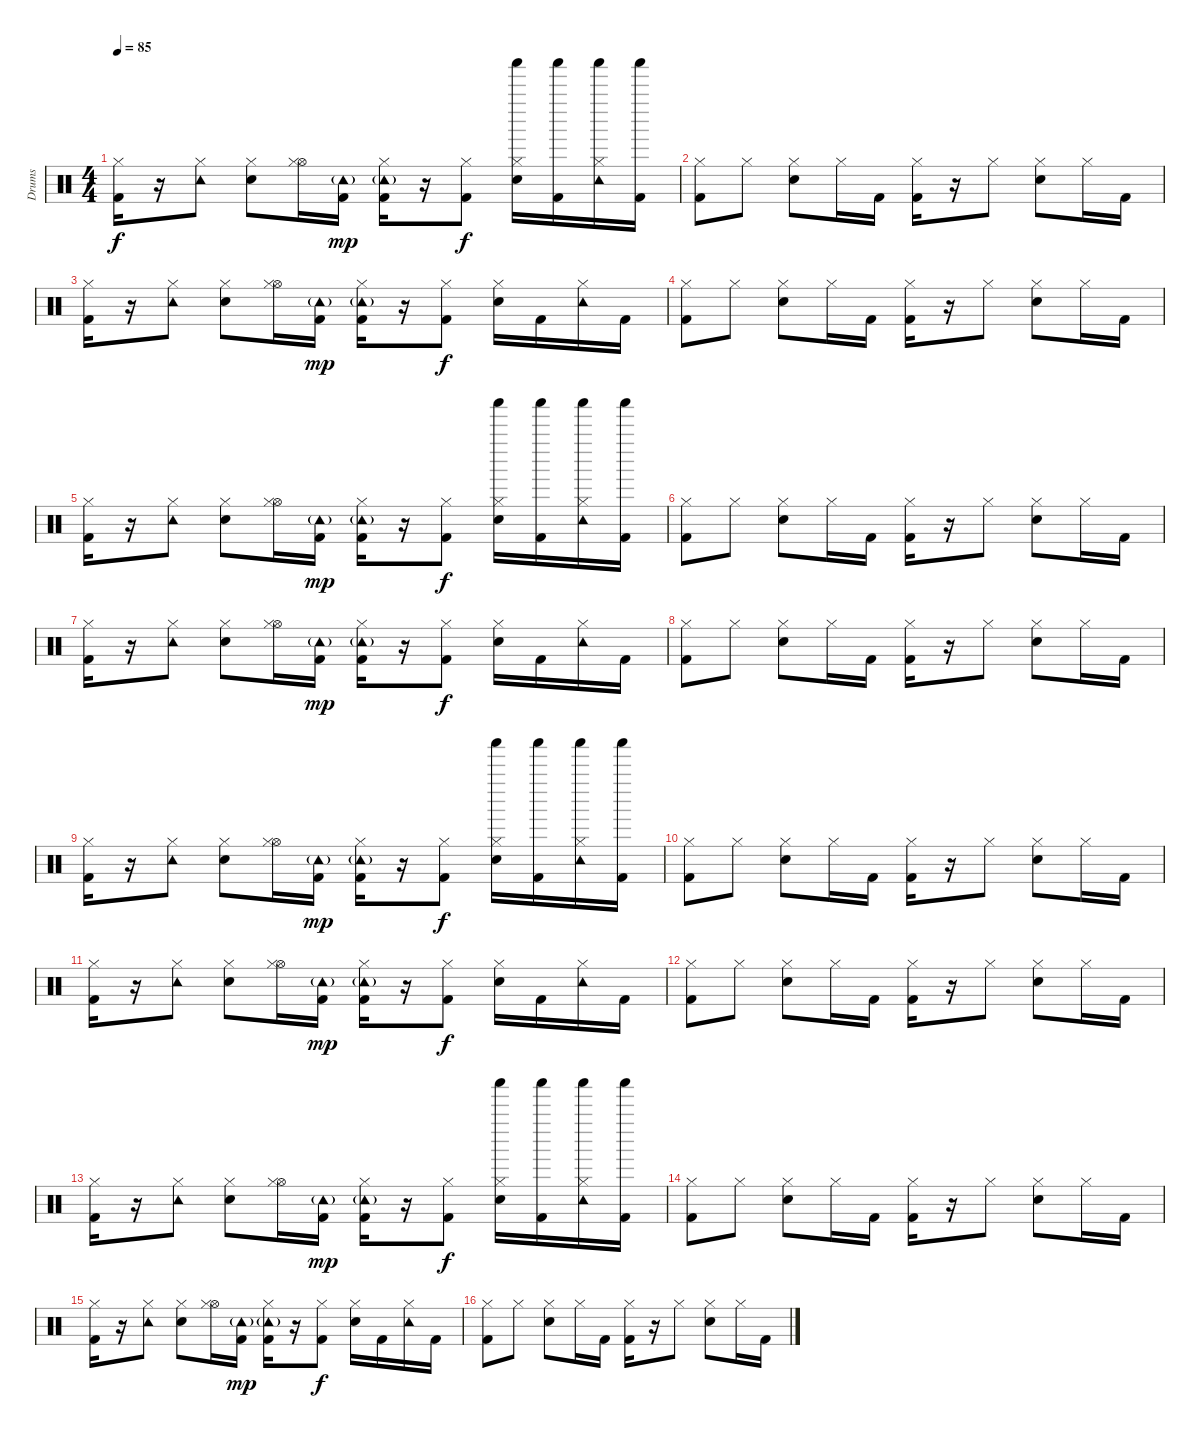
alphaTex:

\track ("Drums" "Drums") {instrument percussion}
\staff {score}
\articulation defaults
\ts (4 4)
\tempo 85
\clef neutral
\ks c
("Hi-Hat (closed)" "Kick (hit) 2").16{dy f} r.16 ("Tambourine (hit)" "Hi-Hat (closed)").8 ("Hi-Hat (closed)" "Snare (hit) 2").8 ("Hi-Hat (open)" "Hi-Hat (closed)").16 ("Tambourine (hit)"{g} "Kick (hit) 2").16{dy mp} ("Tambourine (hit)"{g} "Hi-Hat (closed)" "Kick (hit) 2").16 r.16 ("Hi-Hat (closed)" "Kick (hit) 2").8{dy f} ("Shaker (hit)" "Hi-Hat (closed)" "Snare (hit) 2").16 ("Shaker (hit)" "Kick (hit) 2").16 ("Tambourine (hit)" "Hi-Hat (closed)" "Shaker (hit)").16 ("Shaker (hit)" "Kick (hit) 2").16 |
("Hi-Hat (closed)" "Kick (hit) 2").8 "Hi-Hat (closed)".8 ("Hi-Hat (closed)" "Snare (hit) 2").8 "Hi-Hat (closed)".16 "Kick (hit) 2".16 ("Hi-Hat (closed)" "Kick (hit) 2").16 r.16 "Hi-Hat (closed)".8 ("Hi-Hat (closed)" "Snare (hit) 2").8 "Hi-Hat (closed)".16 "Kick (hit) 2".16 |
("Hi-Hat (closed)" "Kick (hit) 2").16 r.16 ("Tambourine (hit)" "Hi-Hat (closed)").8 ("Hi-Hat (closed)" "Snare (hit) 2").8 ("Hi-Hat (open)" "Hi-Hat (closed)").16 ("Tambourine (hit)"{g} "Kick (hit) 2").16{dy mp} ("Tambourine (hit)"{g} "Hi-Hat (closed)" "Kick (hit) 2").16 r.16 ("Hi-Hat (closed)" "Kick (hit) 2").8{dy f} ("Hi-Hat (closed)" "Snare (hit) 2").16 "Kick (hit) 2".16 ("Tambourine (hit)" "Hi-Hat (closed)").16 "Kick (hit) 2".16 |
("Hi-Hat (closed)" "Kick (hit) 2").8 "Hi-Hat (closed)".8 ("Hi-Hat (closed)" "Snare (hit) 2").8 "Hi-Hat (closed)".16 "Kick (hit) 2".16 ("Hi-Hat (closed)" "Kick (hit) 2").16 r.16 "Hi-Hat (closed)".8 ("Hi-Hat (closed)" "Snare (hit) 2").8 "Hi-Hat (closed)".16 "Kick (hit) 2".16 |
("Hi-Hat (closed)" "Kick (hit) 2").16 r.16 ("Tambourine (hit)" "Hi-Hat (closed)").8 ("Hi-Hat (closed)" "Snare (hit) 2").8 ("Hi-Hat (open)" "Hi-Hat (closed)").16 ("Tambourine (hit)"{g} "Kick (hit) 2").16{dy mp} ("Tambourine (hit)"{g} "Hi-Hat (closed)" "Kick (hit) 2").16 r.16 ("Hi-Hat (closed)" "Kick (hit) 2").8{dy f} ("Shaker (hit)" "Hi-Hat (closed)" "Snare (hit) 2").16 ("Shaker (hit)" "Kick (hit) 2").16 ("Tambourine (hit)" "Hi-Hat (closed)" "Shaker (hit)").16 ("Shaker (hit)" "Kick (hit) 2").16 |
("Hi-Hat (closed)" "Kick (hit) 2").8 "Hi-Hat (closed)".8 ("Hi-Hat (closed)" "Snare (hit) 2").8 "Hi-Hat (closed)".16 "Kick (hit) 2".16 ("Hi-Hat (closed)" "Kick (hit) 2").16 r.16 "Hi-Hat (closed)".8 ("Hi-Hat (closed)" "Snare (hit) 2").8 "Hi-Hat (closed)".16 "Kick (hit) 2".16 |
("Hi-Hat (closed)" "Kick (hit) 2").16 r.16 ("Tambourine (hit)" "Hi-Hat (closed)").8 ("Hi-Hat (closed)" "Snare (hit) 2").8 ("Hi-Hat (open)" "Hi-Hat (closed)").16 ("Tambourine (hit)"{g} "Kick (hit) 2").16{dy mp} ("Tambourine (hit)"{g} "Hi-Hat (closed)" "Kick (hit) 2").16 r.16 ("Hi-Hat (closed)" "Kick (hit) 2").8{dy f} ("Hi-Hat (closed)" "Snare (hit) 2").16 "Kick (hit) 2".16 ("Tambourine (hit)" "Hi-Hat (closed)").16 "Kick (hit) 2".16 |
("Hi-Hat (closed)" "Kick (hit) 2").8 "Hi-Hat (closed)".8 ("Hi-Hat (closed)" "Snare (hit) 2").8 "Hi-Hat (closed)".16 "Kick (hit) 2".16 ("Hi-Hat (closed)" "Kick (hit) 2").16 r.16 "Hi-Hat (closed)".8 ("Hi-Hat (closed)" "Snare (hit) 2").8 "Hi-Hat (closed)".16 "Kick (hit) 2".16 |
("Hi-Hat (closed)" "Kick (hit) 2").16 r.16 ("Tambourine (hit)" "Hi-Hat (closed)").8 ("Hi-Hat (closed)" "Snare (hit) 2").8 ("Hi-Hat (open)" "Hi-Hat (closed)").16 ("Tambourine (hit)"{g} "Kick (hit) 2").16{dy mp} ("Tambourine (hit)"{g} "Hi-Hat (closed)" "Kick (hit) 2").16 r.16 ("Hi-Hat (closed)" "Kick (hit) 2").8{dy f} ("Shaker (hit)" "Hi-Hat (closed)" "Snare (hit) 2").16 ("Shaker (hit)" "Kick (hit) 2").16 ("Tambourine (hit)" "Hi-Hat (closed)" "Shaker (hit)").16 ("Shaker (hit)" "Kick (hit) 2").16 |
("Hi-Hat (closed)" "Kick (hit) 2").8 "Hi-Hat (closed)".8 ("Hi-Hat (closed)" "Snare (hit) 2").8 "Hi-Hat (closed)".16 "Kick (hit) 2".16 ("Hi-Hat (closed)" "Kick (hit) 2").16 r.16 "Hi-Hat (closed)".8 ("Hi-Hat (closed)" "Snare (hit) 2").8 "Hi-Hat (closed)".16 "Kick (hit) 2".16 |
("Hi-Hat (closed)" "Kick (hit) 2").16 r.16 ("Tambourine (hit)" "Hi-Hat (closed)").8 ("Hi-Hat (closed)" "Snare (hit) 2").8 ("Hi-Hat (open)" "Hi-Hat (closed)").16 ("Tambourine (hit)"{g} "Kick (hit) 2").16{dy mp} ("Tambourine (hit)"{g} "Hi-Hat (closed)" "Kick (hit) 2").16 r.16 ("Hi-Hat (closed)" "Kick (hit) 2").8{dy f} ("Hi-Hat (closed)" "Snare (hit) 2").16 "Kick (hit) 2".16 ("Tambourine (hit)" "Hi-Hat (closed)").16 "Kick (hit) 2".16 |
("Hi-Hat (closed)" "Kick (hit) 2").8 "Hi-Hat (closed)".8 ("Hi-Hat (closed)" "Snare (hit) 2").8 "Hi-Hat (closed)".16 "Kick (hit) 2".16 ("Hi-Hat (closed)" "Kick (hit) 2").16 r.16 "Hi-Hat (closed)".8 ("Hi-Hat (closed)" "Snare (hit) 2").8 "Hi-Hat (closed)".16 "Kick (hit) 2".16 |
("Hi-Hat (closed)" "Kick (hit) 2").16{volume 11} r.16 ("Tambourine (hit)" "Hi-Hat (closed)").8 ("Hi-Hat (closed)" "Snare (hit) 2").8 ("Hi-Hat (open)" "Hi-Hat (closed)").16 ("Tambourine (hit)"{g} "Kick (hit) 2").16{dy mp} ("Tambourine (hit)"{g} "Hi-Hat (closed)" "Kick (hit) 2").16 r.16 ("Hi-Hat (closed)" "Kick (hit) 2").8{dy f} ("Shaker (hit)" "Hi-Hat (closed)" "Snare (hit) 2").16 ("Shaker (hit)" "Kick (hit) 2").16 ("Tambourine (hit)" "Hi-Hat (closed)" "Shaker (hit)").16 ("Shaker (hit)" "Kick (hit) 2").16 |
("Hi-Hat (closed)" "Kick (hit) 2").8{volume 7} "Hi-Hat (closed)".8 ("Hi-Hat (closed)" "Snare (hit) 2").8 "Hi-Hat (closed)".16 "Kick (hit) 2".16 ("Hi-Hat (closed)" "Kick (hit) 2").16 r.16 "Hi-Hat (closed)".8 ("Hi-Hat (closed)" "Snare (hit) 2").8 "Hi-Hat (closed)".16 "Kick (hit) 2".16 |
("Hi-Hat (closed)" "Kick (hit) 2").16{volume 3} r.16 ("Tambourine (hit)" "Hi-Hat (closed)").8 ("Hi-Hat (closed)" "Snare (hit) 2").8 ("Hi-Hat (open)" "Hi-Hat (closed)").16 ("Tambourine (hit)"{g} "Kick (hit) 2").16{dy mp} ("Tambourine (hit)"{g} "Hi-Hat (closed)" "Kick (hit) 2").16 r.16 ("Hi-Hat (closed)" "Kick (hit) 2").8{dy f} ("Hi-Hat (closed)" "Snare (hit) 2").16 "Kick (hit) 2".16 ("Tambourine (hit)" "Hi-Hat (closed)").16 "Kick (hit) 2".16 |
("Hi-Hat (closed)" "Kick (hit) 2").8{volume 2} "Hi-Hat (closed)".8 ("Hi-Hat (closed)" "Snare (hit) 2").8 "Hi-Hat (closed)".16 "Kick (hit) 2".16 ("Hi-Hat (closed)" "Kick (hit) 2").16 r.16 "Hi-Hat (closed)".8 ("Hi-Hat (closed)" "Snare (hit) 2").8 "Hi-Hat (closed)".16 "Kick (hit) 2".16
